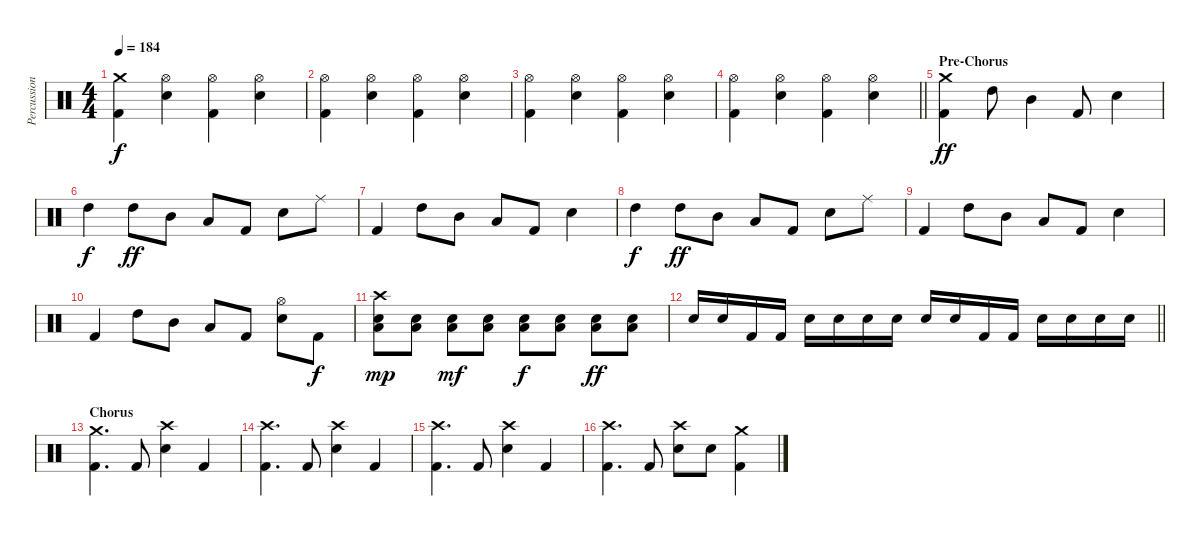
\track ("Percussion" "Percussion") {instrument percussion}
\staff {score}
\articulation defaults
\ts (4 4)
\tempo 184
\clef neutral
\ks c
("Crash medium (hit)" "Kick (hit) 2").4{dy f} ("Hi-Hat (open)" "Electric Snare (hit)").4 ("Hi-Hat (open)" "Kick (hit) 2").4 ("Hi-Hat (open)" "Electric Snare (hit)").4 |
("Hi-Hat (open)" "Kick (hit) 2").4 ("Hi-Hat (open)" "Electric Snare (hit)").4 ("Hi-Hat (open)" "Kick (hit) 2").4 ("Hi-Hat (open)" "Electric Snare (hit)").4 |
("Hi-Hat (open)" "Kick (hit) 2").4 ("Hi-Hat (open)" "Electric Snare (hit)").4 ("Hi-Hat (open)" "Kick (hit) 2").4 ("Hi-Hat (open)" "Electric Snare (hit)").4 |
\barLineRight lightlight
("Hi-Hat (open)" "Kick (hit) 2").4 ("Hi-Hat (open)" "Electric Snare (hit)").4 ("Hi-Hat (open)" "Kick (hit) 2").4 ("Hi-Hat (open)" "Electric Snare (hit)").4 |
\section ("" "Pre-Chorus")
("Crash medium (hit)" "Kick (hit) 2").4{dy ff} "High Tom (hit)".8 "Mid Tom (hit)".4 "Kick (hit) 2".8 "Electric Snare (hit)".4 |
"High Tom (hit)".4{dy f} "High Tom (hit)".8{dy ff} "Mid Tom (hit)".8 "Low Tom (hit)".8 "Kick (hit) 2".8 "Electric Snare (hit)".8 "Ride (middle)".8 |
"Kick (hit) 2".4 "High Tom (hit)".8 "Mid Tom (hit)".8 "Low Tom (hit)".8 "Kick (hit) 2".8 "Electric Snare (hit)".4 |
"High Tom (hit)".4{dy f} "High Tom (hit)".8{dy ff} "Mid Tom (hit)".8 "Low Tom (hit)".8 "Kick (hit) 2".8 "Electric Snare (hit)".8 "Ride (middle)".8 |
"Kick (hit) 2".4 "High Tom (hit)".8 "Mid Tom (hit)".8 "Low Tom (hit)".8 "Kick (hit) 2".8 "Electric Snare (hit)".4 |
"Kick (hit) 2".4 "High Tom (hit)".8 "Mid Tom (hit)".8 "Low Tom (hit)".8 "Kick (hit) 2".8 ("Hi-Hat (open)" "Electric Snare (hit)").8 "Kick (hit) 2".8{dy f} |
("Crash high (hit)" "Electric Snare (hit)" "Low Tom (hit)").8{dy mp} ("Electric Snare (hit)" "Low Tom (hit)").8 ("Electric Snare (hit)" "Low Tom (hit)").8{dy mf} ("Electric Snare (hit)" "Low Tom (hit)").8 ("Electric Snare (hit)" "Low Tom (hit)").8{dy f} ("Electric Snare (hit)" "Low Tom (hit)").8 ("Electric Snare (hit)" "Low Tom (hit)").8{dy ff} ("Electric Snare (hit)" "Low Tom (hit)").8 |
\barLineRight lightlight "Electric Snare (hit)".16 "Electric Snare (hit)".16 "Kick (hit) 2".16 "Kick (hit) 2".16 "Electric Snare (hit)".16 "Electric Snare (hit)".16 "Electric Snare (hit)".16 "Electric Snare (hit)".16 "Electric Snare (hit)".16 "Electric Snare (hit)".16 "Kick (hit) 2".16 "Kick (hit) 2".16 "Electric Snare (hit)".16 "Electric Snare (hit)".16 "Electric Snare (hit)".16 "Electric Snare (hit)".16
|
\section ("" "Chorus")
("Crash medium (hit)" "Kick (hit) 2").4{d} "Kick (hit) 2".8 ("Crash high (hit)" "Electric Snare (hit)").4 "Kick (hit) 2".4 |
("Crash high (hit)" "Kick (hit) 2").4{d} "Kick (hit) 2".8 ("Crash high (hit)" "Electric Snare (hit)").4 "Kick (hit) 2".4 |
("Crash high (hit)" "Kick (hit) 2").4{d} "Kick (hit) 2".8 ("Crash high (hit)" "Electric Snare (hit)").4 "Kick (hit) 2".4 |
("Crash high (hit)" "Kick (hit) 2").4{d} "Kick (hit) 2".8 ("Crash high (hit)" "Electric Snare (hit)").8 "Electric Snare (hit)".8 ("Crash medium (hit)" "Kick (hit) 2").4
